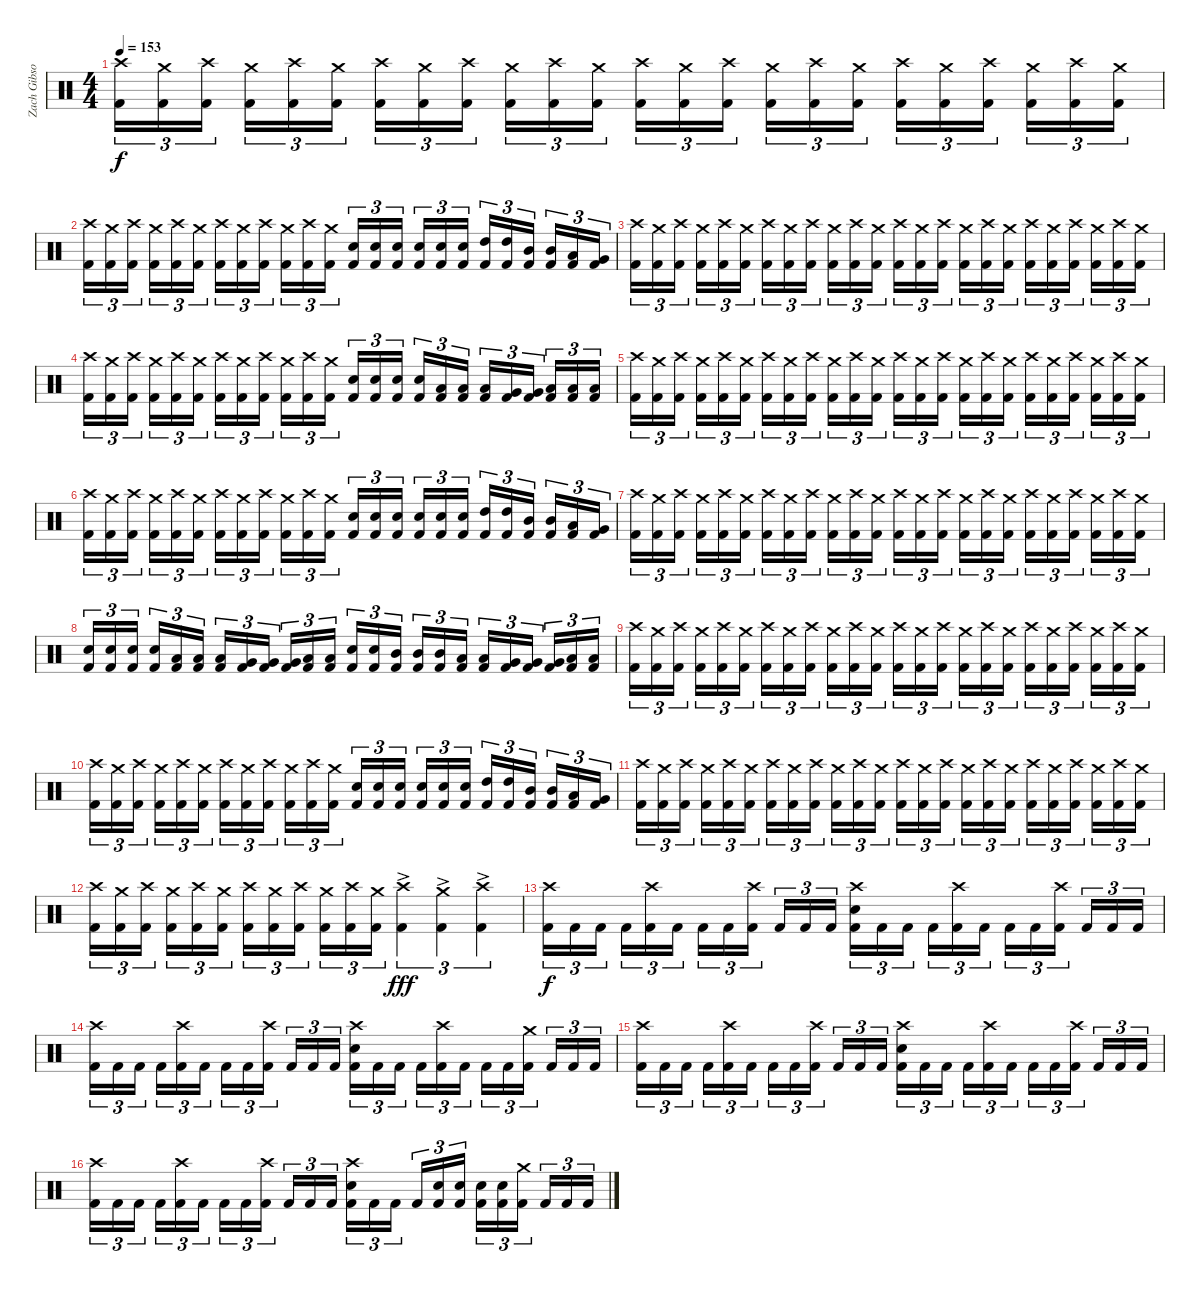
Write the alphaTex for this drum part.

\track ("Zach Gibson (Drums)" "Zach Gibso") {instrument percussion}
\staff {score}
\articulation defaults
\ts (4 4)
\tempo 153
\clef neutral
\ks c
("Crash high (hit)" "Kick (hit) 2").16{tu (3 2) dy f} ("Crash medium (hit)" "Kick (hit) 2").16{tu (3 2)} ("Crash high (hit)" "Kick (hit) 2").16{tu (3 2)} ("Crash medium (hit)" "Kick (hit) 2").16{tu (3 2)} ("Crash high (hit)" "Kick (hit) 2").16{tu (3 2)} ("Crash medium (hit)" "Kick (hit) 2").16{tu (3 2)} ("Crash high (hit)" "Kick (hit) 2").16{tu (3 2)} ("Crash medium (hit)" "Kick (hit) 2").16{tu (3 2)} ("Crash high (hit)" "Kick (hit) 2").16{tu (3 2)} ("Crash medium (hit)" "Kick (hit) 2").16{tu (3 2)} ("Crash high (hit)" "Kick (hit) 2").16{tu (3 2)} ("Crash medium (hit)" "Kick (hit) 2").16{tu (3 2)} ("Crash high (hit)" "Kick (hit) 2").16{tu (3 2)} ("Crash medium (hit)" "Kick (hit) 2").16{tu (3 2)} ("Crash high (hit)" "Kick (hit) 2").16{tu (3 2)} ("Crash medium (hit)" "Kick (hit) 2").16{tu (3 2)} ("Crash high (hit)" "Kick (hit) 2").16{tu (3 2)} ("Crash medium (hit)" "Kick (hit) 2").16{tu (3 2)} ("Crash high (hit)" "Kick (hit) 2").16{tu (3 2)} ("Crash medium (hit)" "Kick (hit) 2").16{tu (3 2)} ("Crash high (hit)" "Kick (hit) 2").16{tu (3 2)} ("Crash medium (hit)" "Kick (hit) 2").16{tu (3 2)} ("Crash high (hit)" "Kick (hit) 2").16{tu (3 2)} ("Crash medium (hit)" "Kick (hit) 2").16{tu (3 2)} |
("Crash high (hit)" "Kick (hit) 2").16{tu (3 2)} ("Crash medium (hit)" "Kick (hit) 2").16{tu (3 2)} ("Crash high (hit)" "Kick (hit) 2").16{tu (3 2)} ("Crash medium (hit)" "Kick (hit) 2").16{tu (3 2)} ("Crash high (hit)" "Kick (hit) 2").16{tu (3 2)} ("Crash medium (hit)" "Kick (hit) 2").16{tu (3 2)} ("Crash high (hit)" "Kick (hit) 2").16{tu (3 2)} ("Crash medium (hit)" "Kick (hit) 2").16{tu (3 2)} ("Crash high (hit)" "Kick (hit) 2").16{tu (3 2)} ("Crash medium (hit)" "Kick (hit) 2").16{tu (3 2)} ("Crash high (hit)" "Kick (hit) 2").16{tu (3 2)} ("Crash medium (hit)" "Kick (hit) 2").16{tu (3 2)} ("Snare (hit) 2" "Kick (hit) 2").16{tu (3 2)} ("Snare (hit) 2" "Kick (hit) 2").16{tu (3 2)} ("Snare (hit) 2" "Kick (hit) 2").16{tu (3 2)} ("Snare (hit) 2" "Kick (hit) 2").16{tu (3 2)} ("Snare (hit) 2" "Kick (hit) 2").16{tu (3 2)} ("Snare (hit) 2" "Kick (hit) 2").16{tu (3 2)} ("High Tom (hit)" "Kick (hit) 2").16{tu (3 2)} ("High Tom (hit)" "Kick (hit) 2").16{tu (3 2)} ("Mid Tom (hit)" "Kick (hit) 2").16{tu (3 2)} ("Mid Tom (hit)" "Kick (hit) 2").16{tu (3 2)} ("Low Tom (hit)" "Kick (hit) 2").16{tu (3 2)} ("Very Low Tom (hit)" "Kick (hit) 2").16{tu (3 2)} |
("Crash high (hit)" "Kick (hit) 2").16{tu (3 2)} ("Crash medium (hit)" "Kick (hit) 2").16{tu (3 2)} ("Crash high (hit)" "Kick (hit) 2").16{tu (3 2)} ("Crash medium (hit)" "Kick (hit) 2").16{tu (3 2)} ("Crash high (hit)" "Kick (hit) 2").16{tu (3 2)} ("Crash medium (hit)" "Kick (hit) 2").16{tu (3 2)} ("Crash high (hit)" "Kick (hit) 2").16{tu (3 2)} ("Crash medium (hit)" "Kick (hit) 2").16{tu (3 2)} ("Crash high (hit)" "Kick (hit) 2").16{tu (3 2)} ("Crash medium (hit)" "Kick (hit) 2").16{tu (3 2)} ("Crash high (hit)" "Kick (hit) 2").16{tu (3 2)} ("Crash medium (hit)" "Kick (hit) 2").16{tu (3 2)} ("Crash high (hit)" "Kick (hit) 2").16{tu (3 2)} ("Crash medium (hit)" "Kick (hit) 2").16{tu (3 2)} ("Crash high (hit)" "Kick (hit) 2").16{tu (3 2)} ("Crash medium (hit)" "Kick (hit) 2").16{tu (3 2)} ("Crash high (hit)" "Kick (hit) 2").16{tu (3 2)} ("Crash medium (hit)" "Kick (hit) 2").16{tu (3 2)} ("Crash high (hit)" "Kick (hit) 2").16{tu (3 2)} ("Crash medium (hit)" "Kick (hit) 2").16{tu (3 2)} ("Crash high (hit)" "Kick (hit) 2").16{tu (3 2)} ("Crash medium (hit)" "Kick (hit) 2").16{tu (3 2)} ("Crash high (hit)" "Kick (hit) 2").16{tu (3 2)} ("Crash medium (hit)" "Kick (hit) 2").16{tu (3 2)} |
("Crash high (hit)" "Kick (hit) 2").16{tu (3 2)} ("Crash medium (hit)" "Kick (hit) 2").16{tu (3 2)} ("Crash high (hit)" "Kick (hit) 2").16{tu (3 2)} ("Crash medium (hit)" "Kick (hit) 2").16{tu (3 2)} ("Crash high (hit)" "Kick (hit) 2").16{tu (3 2)} ("Crash medium (hit)" "Kick (hit) 2").16{tu (3 2)} ("Crash high (hit)" "Kick (hit) 2").16{tu (3 2)} ("Crash medium (hit)" "Kick (hit) 2").16{tu (3 2)} ("Crash high (hit)" "Kick (hit) 2").16{tu (3 2)} ("Crash medium (hit)" "Kick (hit) 2").16{tu (3 2)} ("Crash high (hit)" "Kick (hit) 2").16{tu (3 2)} ("Crash medium (hit)" "Kick (hit) 2").16{tu (3 2)} ("Snare (hit) 2" "Kick (hit) 2").16{tu (3 2)} ("Snare (hit) 2" "Kick (hit) 2").16{tu (3 2)} ("Snare (hit) 2" "Kick (hit) 2").16{tu (3 2)} ("Snare (hit) 2" "Kick (hit) 2").16{tu (3 2)} ("Low Tom (hit)" "Kick (hit) 2").16{tu (3 2)} ("Low Tom (hit)" "Kick (hit) 2").16{tu (3 2)} ("Low Tom (hit)" "Kick (hit) 2").16{tu (3 2)} ("Very Low Tom (hit)" "Kick (hit) 2").16{tu (3 2)} ("Very Low Tom (hit)" "Kick (hit) 2").16{tu (3 2)} ("Low Floor Tom (hit)" "Kick (hit) 2").16{tu (3 2)} ("Low Floor Tom (hit)" "Kick (hit) 2").16{tu (3 2)} ("Low Floor Tom (hit)" "Kick (hit) 2").16{tu (3 2)} |
("Crash high (hit)" "Kick (hit) 2").16{tu (3 2)} ("Crash medium (hit)" "Kick (hit) 2").16{tu (3 2)} ("Crash high (hit)" "Kick (hit) 2").16{tu (3 2)} ("Crash medium (hit)" "Kick (hit) 2").16{tu (3 2)} ("Crash high (hit)" "Kick (hit) 2").16{tu (3 2)} ("Crash medium (hit)" "Kick (hit) 2").16{tu (3 2)} ("Crash high (hit)" "Kick (hit) 2").16{tu (3 2)} ("Crash medium (hit)" "Kick (hit) 2").16{tu (3 2)} ("Crash high (hit)" "Kick (hit) 2").16{tu (3 2)} ("Crash medium (hit)" "Kick (hit) 2").16{tu (3 2)} ("Crash high (hit)" "Kick (hit) 2").16{tu (3 2)} ("Crash medium (hit)" "Kick (hit) 2").16{tu (3 2)} ("Crash high (hit)" "Kick (hit) 2").16{tu (3 2)} ("Crash medium (hit)" "Kick (hit) 2").16{tu (3 2)} ("Crash high (hit)" "Kick (hit) 2").16{tu (3 2)} ("Crash medium (hit)" "Kick (hit) 2").16{tu (3 2)} ("Crash high (hit)" "Kick (hit) 2").16{tu (3 2)} ("Crash medium (hit)" "Kick (hit) 2").16{tu (3 2)} ("Crash high (hit)" "Kick (hit) 2").16{tu (3 2)} ("Crash medium (hit)" "Kick (hit) 2").16{tu (3 2)} ("Crash high (hit)" "Kick (hit) 2").16{tu (3 2)} ("Crash medium (hit)" "Kick (hit) 2").16{tu (3 2)} ("Crash high (hit)" "Kick (hit) 2").16{tu (3 2)} ("Crash medium (hit)" "Kick (hit) 2").16{tu (3 2)} |
("Crash high (hit)" "Kick (hit) 2").16{tu (3 2)} ("Crash medium (hit)" "Kick (hit) 2").16{tu (3 2)} ("Crash high (hit)" "Kick (hit) 2").16{tu (3 2)} ("Crash medium (hit)" "Kick (hit) 2").16{tu (3 2)} ("Crash high (hit)" "Kick (hit) 2").16{tu (3 2)} ("Crash medium (hit)" "Kick (hit) 2").16{tu (3 2)} ("Crash high (hit)" "Kick (hit) 2").16{tu (3 2)} ("Crash medium (hit)" "Kick (hit) 2").16{tu (3 2)} ("Crash high (hit)" "Kick (hit) 2").16{tu (3 2)} ("Crash medium (hit)" "Kick (hit) 2").16{tu (3 2)} ("Crash high (hit)" "Kick (hit) 2").16{tu (3 2)} ("Crash medium (hit)" "Kick (hit) 2").16{tu (3 2)} ("Snare (hit) 2" "Kick (hit) 2").16{tu (3 2)} ("Snare (hit) 2" "Kick (hit) 2").16{tu (3 2)} ("Snare (hit) 2" "Kick (hit) 2").16{tu (3 2)} ("Snare (hit) 2" "Kick (hit) 2").16{tu (3 2)} ("Snare (hit) 2" "Kick (hit) 2").16{tu (3 2)} ("Snare (hit) 2" "Kick (hit) 2").16{tu (3 2)} ("High Tom (hit)" "Kick (hit) 2").16{tu (3 2)} ("High Tom (hit)" "Kick (hit) 2").16{tu (3 2)} ("Mid Tom (hit)" "Kick (hit) 2").16{tu (3 2)} ("Mid Tom (hit)" "Kick (hit) 2").16{tu (3 2)} ("Low Tom (hit)" "Kick (hit) 2").16{tu (3 2)} ("Very Low Tom (hit)" "Kick (hit) 2").16{tu (3 2)} |
("Crash high (hit)" "Kick (hit) 2").16{tu (3 2)} ("Crash medium (hit)" "Kick (hit) 2").16{tu (3 2)} ("Crash high (hit)" "Kick (hit) 2").16{tu (3 2)} ("Crash medium (hit)" "Kick (hit) 2").16{tu (3 2)} ("Crash high (hit)" "Kick (hit) 2").16{tu (3 2)} ("Crash medium (hit)" "Kick (hit) 2").16{tu (3 2)} ("Crash high (hit)" "Kick (hit) 2").16{tu (3 2)} ("Crash medium (hit)" "Kick (hit) 2").16{tu (3 2)} ("Crash high (hit)" "Kick (hit) 2").16{tu (3 2)} ("Crash medium (hit)" "Kick (hit) 2").16{tu (3 2)} ("Crash high (hit)" "Kick (hit) 2").16{tu (3 2)} ("Crash medium (hit)" "Kick (hit) 2").16{tu (3 2)} ("Crash high (hit)" "Kick (hit) 2").16{tu (3 2)} ("Crash medium (hit)" "Kick (hit) 2").16{tu (3 2)} ("Crash high (hit)" "Kick (hit) 2").16{tu (3 2)} ("Crash medium (hit)" "Kick (hit) 2").16{tu (3 2)} ("Crash high (hit)" "Kick (hit) 2").16{tu (3 2)} ("Crash medium (hit)" "Kick (hit) 2").16{tu (3 2)} ("Crash high (hit)" "Kick (hit) 2").16{tu (3 2)} ("Crash medium (hit)" "Kick (hit) 2").16{tu (3 2)} ("Crash high (hit)" "Kick (hit) 2").16{tu (3 2)} ("Crash medium (hit)" "Kick (hit) 2").16{tu (3 2)} ("Crash high (hit)" "Kick (hit) 2").16{tu (3 2)} ("Crash medium (hit)" "Kick (hit) 2").16{tu (3 2)} |
("Snare (hit) 2" "Kick (hit) 2").16{tu (3 2)} ("Snare (hit) 2" "Kick (hit) 2").16{tu (3 2)} ("Snare (hit) 2" "Kick (hit) 2").16{tu (3 2)} ("Snare (hit) 2" "Kick (hit) 2").16{tu (3 2)} ("Low Tom (hit)" "Kick (hit) 2").16{tu (3 2)} ("Low Tom (hit)" "Kick (hit) 2").16{tu (3 2)} ("Low Tom (hit)" "Kick (hit) 2").16{tu (3 2)} ("Very Low Tom (hit)" "Kick (hit) 2").16{tu (3 2)} ("Very Low Tom (hit)" "Kick (hit) 2").16{tu (3 2)} ("Very Low Tom (hit)" "Kick (hit) 2").16{tu (3 2)} ("Low Floor Tom (hit)" "Kick (hit) 2").16{tu (3 2)} ("Low Floor Tom (hit)" "Kick (hit) 2").16{tu (3 2)} ("Snare (hit) 2" "Kick (hit) 2").16{tu (3 2)} ("Snare (hit) 2" "Kick (hit) 2").16{tu (3 2)} ("Mid Tom (hit)" "Kick (hit) 2").16{tu (3 2)} ("Mid Tom (hit)" "Kick (hit) 2").16{tu (3 2)} ("Mid Tom (hit)" "Kick (hit) 2").16{tu (3 2)} ("Low Tom (hit)" "Kick (hit) 2").16{tu (3 2)} ("Low Tom (hit)" "Kick (hit) 2").16{tu (3 2)} ("Very Low Tom (hit)" "Kick (hit) 2").16{tu (3 2)} ("Very Low Tom (hit)" "Kick (hit) 2").16{tu (3 2)} ("Very Low Tom (hit)" "Kick (hit) 2").16{tu (3 2)} ("Low Floor Tom (hit)" "Kick (hit) 2").16{tu (3 2)} ("Low Floor Tom (hit)" "Kick (hit) 2").16{tu (3 2)} |
("Crash high (hit)" "Kick (hit) 2").16{tu (3 2)} ("Crash medium (hit)" "Kick (hit) 2").16{tu (3 2)} ("Crash high (hit)" "Kick (hit) 2").16{tu (3 2)} ("Crash medium (hit)" "Kick (hit) 2").16{tu (3 2)} ("Crash high (hit)" "Kick (hit) 2").16{tu (3 2)} ("Crash medium (hit)" "Kick (hit) 2").16{tu (3 2)} ("Crash high (hit)" "Kick (hit) 2").16{tu (3 2)} ("Crash medium (hit)" "Kick (hit) 2").16{tu (3 2)} ("Crash high (hit)" "Kick (hit) 2").16{tu (3 2)} ("Crash medium (hit)" "Kick (hit) 2").16{tu (3 2)} ("Crash high (hit)" "Kick (hit) 2").16{tu (3 2)} ("Crash medium (hit)" "Kick (hit) 2").16{tu (3 2)} ("Crash high (hit)" "Kick (hit) 2").16{tu (3 2)} ("Crash medium (hit)" "Kick (hit) 2").16{tu (3 2)} ("Crash high (hit)" "Kick (hit) 2").16{tu (3 2)} ("Crash medium (hit)" "Kick (hit) 2").16{tu (3 2)} ("Crash high (hit)" "Kick (hit) 2").16{tu (3 2)} ("Crash medium (hit)" "Kick (hit) 2").16{tu (3 2)} ("Crash high (hit)" "Kick (hit) 2").16{tu (3 2)} ("Crash medium (hit)" "Kick (hit) 2").16{tu (3 2)} ("Crash high (hit)" "Kick (hit) 2").16{tu (3 2)} ("Crash medium (hit)" "Kick (hit) 2").16{tu (3 2)} ("Crash high (hit)" "Kick (hit) 2").16{tu (3 2)} ("Crash medium (hit)" "Kick (hit) 2").16{tu (3 2)} |
("Crash high (hit)" "Kick (hit) 2").16{tu (3 2)} ("Crash medium (hit)" "Kick (hit) 2").16{tu (3 2)} ("Crash high (hit)" "Kick (hit) 2").16{tu (3 2)} ("Crash medium (hit)" "Kick (hit) 2").16{tu (3 2)} ("Crash high (hit)" "Kick (hit) 2").16{tu (3 2)} ("Crash medium (hit)" "Kick (hit) 2").16{tu (3 2)} ("Crash high (hit)" "Kick (hit) 2").16{tu (3 2)} ("Crash medium (hit)" "Kick (hit) 2").16{tu (3 2)} ("Crash high (hit)" "Kick (hit) 2").16{tu (3 2)} ("Crash medium (hit)" "Kick (hit) 2").16{tu (3 2)} ("Crash high (hit)" "Kick (hit) 2").16{tu (3 2)} ("Crash medium (hit)" "Kick (hit) 2").16{tu (3 2)} ("Snare (hit) 2" "Kick (hit) 2").16{tu (3 2)} ("Snare (hit) 2" "Kick (hit) 2").16{tu (3 2)} ("Snare (hit) 2" "Kick (hit) 2").16{tu (3 2)} ("Snare (hit) 2" "Kick (hit) 2").16{tu (3 2)} ("Snare (hit) 2" "Kick (hit) 2").16{tu (3 2)} ("Snare (hit) 2" "Kick (hit) 2").16{tu (3 2)} ("High Tom (hit)" "Kick (hit) 2").16{tu (3 2)} ("High Tom (hit)" "Kick (hit) 2").16{tu (3 2)} ("Mid Tom (hit)" "Kick (hit) 2").16{tu (3 2)} ("Mid Tom (hit)" "Kick (hit) 2").16{tu (3 2)} ("Low Tom (hit)" "Kick (hit) 2").16{tu (3 2)} ("Very Low Tom (hit)" "Kick (hit) 2").16{tu (3 2)} |
("Crash high (hit)" "Kick (hit) 2").16{tu (3 2)} ("Crash medium (hit)" "Kick (hit) 2").16{tu (3 2)} ("Crash high (hit)" "Kick (hit) 2").16{tu (3 2)} ("Crash medium (hit)" "Kick (hit) 2").16{tu (3 2)} ("Crash high (hit)" "Kick (hit) 2").16{tu (3 2)} ("Crash medium (hit)" "Kick (hit) 2").16{tu (3 2)} ("Crash high (hit)" "Kick (hit) 2").16{tu (3 2)} ("Crash medium (hit)" "Kick (hit) 2").16{tu (3 2)} ("Crash high (hit)" "Kick (hit) 2").16{tu (3 2)} ("Crash medium (hit)" "Kick (hit) 2").16{tu (3 2)} ("Crash high (hit)" "Kick (hit) 2").16{tu (3 2)} ("Crash medium (hit)" "Kick (hit) 2").16{tu (3 2)} ("Crash high (hit)" "Kick (hit) 2").16{tu (3 2)} ("Crash medium (hit)" "Kick (hit) 2").16{tu (3 2)} ("Crash high (hit)" "Kick (hit) 2").16{tu (3 2)} ("Crash medium (hit)" "Kick (hit) 2").16{tu (3 2)} ("Crash high (hit)" "Kick (hit) 2").16{tu (3 2)} ("Crash medium (hit)" "Kick (hit) 2").16{tu (3 2)} ("Crash high (hit)" "Kick (hit) 2").16{tu (3 2)} ("Crash medium (hit)" "Kick (hit) 2").16{tu (3 2)} ("Crash high (hit)" "Kick (hit) 2").16{tu (3 2)} ("Crash medium (hit)" "Kick (hit) 2").16{tu (3 2)} ("Crash high (hit)" "Kick (hit) 2").16{tu (3 2)} ("Crash medium (hit)" "Kick (hit) 2").16{tu (3 2)} |
("Crash high (hit)" "Kick (hit) 2").16{tu (3 2)} ("Crash medium (hit)" "Kick (hit) 2").16{tu (3 2)} ("Crash high (hit)" "Kick (hit) 2").16{tu (3 2)} ("Crash medium (hit)" "Kick (hit) 2").16{tu (3 2)} ("Crash high (hit)" "Kick (hit) 2").16{tu (3 2)} ("Crash medium (hit)" "Kick (hit) 2").16{tu (3 2)} ("Crash high (hit)" "Kick (hit) 2").16{tu (3 2)} ("Crash medium (hit)" "Kick (hit) 2").16{tu (3 2)} ("Crash high (hit)" "Kick (hit) 2").16{tu (3 2)} ("Crash medium (hit)" "Kick (hit) 2").16{tu (3 2)} ("Crash high (hit)" "Kick (hit) 2").16{tu (3 2)} ("Crash medium (hit)" "Kick (hit) 2").16{tu (3 2)} ("Crash high (hit)"{ac} "Kick (hit) 2").4{tu (3 2) dy fff} ("Crash medium (hit)"{ac} "Kick (hit) 2").4{tu (3 2)} ("Crash high (hit)"{ac} "Kick (hit) 2").4{tu (3 2)} |
("Crash high (hit)" "Kick (hit) 2").16{tu (3 2) dy f} "Kick (hit) 2".16{tu (3 2)} "Kick (hit) 2".16{tu (3 2)} "Kick (hit) 2".16{tu (3 2)} ("Crash high (hit)" "Kick (hit) 2").16{tu (3 2)} "Kick (hit) 2".16{tu (3 2)} "Kick (hit) 2".16{tu (3 2)} "Kick (hit) 2".16{tu (3 2)} ("Crash high (hit)" "Kick (hit) 2").16{tu (3 2)} "Kick (hit) 2".16{tu (3 2)} "Kick (hit) 2".16{tu (3 2)} "Kick (hit) 2".16{tu (3 2)} ("Crash high (hit)" "Snare (hit) 2" "Kick (hit) 2").16{tu (3 2)} "Kick (hit) 2".16{tu (3 2)} "Kick (hit) 2".16{tu (3 2)} "Kick (hit) 2".16{tu (3 2)} ("Crash high (hit)" "Kick (hit) 2").16{tu (3 2)} "Kick (hit) 2".16{tu (3 2)} "Kick (hit) 2".16{tu (3 2)} "Kick (hit) 2".16{tu (3 2)} ("Crash high (hit)" "Kick (hit) 2").16{tu (3 2)} "Kick (hit) 2".16{tu (3 2)} "Kick (hit) 2".16{tu (3 2)} "Kick (hit) 2".16{tu (3 2)} |
("Crash high (hit)" "Kick (hit) 2").16{tu (3 2)} "Kick (hit) 2".16{tu (3 2)} "Kick (hit) 2".16{tu (3 2)} "Kick (hit) 2".16{tu (3 2)} ("Crash high (hit)" "Kick (hit) 2").16{tu (3 2)} "Kick (hit) 2".16{tu (3 2)} "Kick (hit) 2".16{tu (3 2)} "Kick (hit) 2".16{tu (3 2)} ("Crash high (hit)" "Kick (hit) 2").16{tu (3 2)} "Kick (hit) 2".16{tu (3 2)} "Kick (hit) 2".16{tu (3 2)} "Kick (hit) 2".16{tu (3 2)} ("Crash high (hit)" "Snare (hit) 2" "Kick (hit) 2").16{tu (3 2)} "Kick (hit) 2".16{tu (3 2)} "Kick (hit) 2".16{tu (3 2)} "Kick (hit) 2".16{tu (3 2)} ("Crash high (hit)" "Kick (hit) 2").16{tu (3 2)} "Kick (hit) 2".16{tu (3 2)} "Kick (hit) 2".16{tu (3 2)} "Kick (hit) 2".16{tu (3 2)} ("Crash medium (hit)" "Kick (hit) 2").16{tu (3 2)} "Kick (hit) 2".16{tu (3 2)} "Kick (hit) 2".16{tu (3 2)} "Kick (hit) 2".16{tu (3 2)} |
("Crash high (hit)" "Kick (hit) 2").16{tu (3 2)} "Kick (hit) 2".16{tu (3 2)} "Kick (hit) 2".16{tu (3 2)} "Kick (hit) 2".16{tu (3 2)} ("Crash high (hit)" "Kick (hit) 2").16{tu (3 2)} "Kick (hit) 2".16{tu (3 2)} "Kick (hit) 2".16{tu (3 2)} "Kick (hit) 2".16{tu (3 2)} ("Crash high (hit)" "Kick (hit) 2").16{tu (3 2)} "Kick (hit) 2".16{tu (3 2)} "Kick (hit) 2".16{tu (3 2)} "Kick (hit) 2".16{tu (3 2)} ("Crash high (hit)" "Snare (hit) 2" "Kick (hit) 2").16{tu (3 2)} "Kick (hit) 2".16{tu (3 2)} "Kick (hit) 2".16{tu (3 2)} "Kick (hit) 2".16{tu (3 2)} ("Crash high (hit)" "Kick (hit) 2").16{tu (3 2)} "Kick (hit) 2".16{tu (3 2)} "Kick (hit) 2".16{tu (3 2)} "Kick (hit) 2".16{tu (3 2)} ("Crash high (hit)" "Kick (hit) 2").16{tu (3 2)} "Kick (hit) 2".16{tu (3 2)} "Kick (hit) 2".16{tu (3 2)} "Kick (hit) 2".16{tu (3 2)} |
("Crash high (hit)" "Kick (hit) 2").16{tu (3 2)} "Kick (hit) 2".16{tu (3 2)} "Kick (hit) 2".16{tu (3 2)} "Kick (hit) 2".16{tu (3 2)} ("Crash high (hit)" "Kick (hit) 2").16{tu (3 2)} "Kick (hit) 2".16{tu (3 2)} "Kick (hit) 2".16{tu (3 2)} "Kick (hit) 2".16{tu (3 2)} ("Crash high (hit)" "Kick (hit) 2").16{tu (3 2)} "Kick (hit) 2".16{tu (3 2)} "Kick (hit) 2".16{tu (3 2)} "Kick (hit) 2".16{tu (3 2)} ("Crash high (hit)" "Snare (hit) 2" "Kick (hit) 2").16{tu (3 2)} "Kick (hit) 2".16{tu (3 2)} "Kick (hit) 2".16{tu (3 2)} "Kick (hit) 2".16{tu (3 2)} ("Snare (hit) 2" "Kick (hit) 2").16{tu (3 2)} ("Snare (hit) 2" "Kick (hit) 2").16{tu (3 2)} ("Snare (hit) 2" "Kick (hit) 2").16{tu (3 2)} ("Snare (hit) 2" "Kick (hit) 2").16{tu (3 2)} ("Crash medium (hit)" "Kick (hit) 2").16{tu (3 2)} "Kick (hit) 2".16{tu (3 2)} "Kick (hit) 2".16{tu (3 2)} "Kick (hit) 2".16{tu (3 2)}
